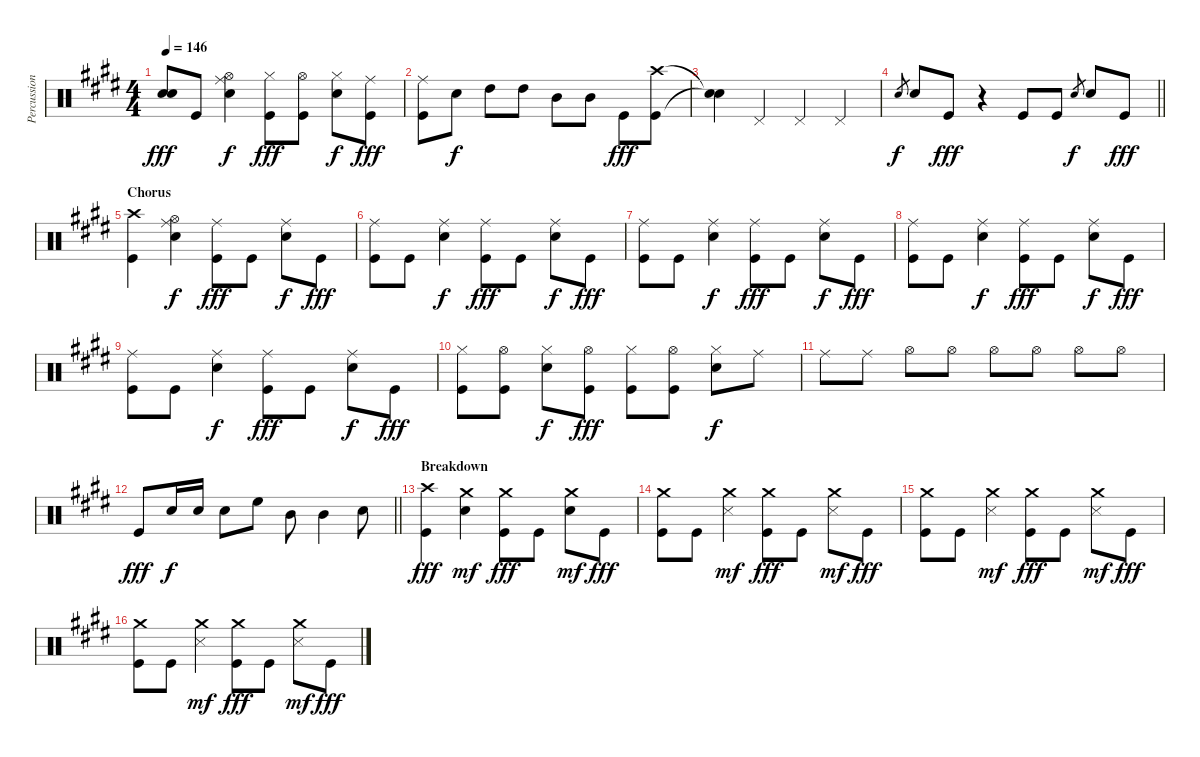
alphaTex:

\track ("Percussion" "Percussion") {instrument percussion}
\staff {score}
\articulation defaults
\ts (4 4)
\tempo 146
\clef neutral
\ks e
("Snare (hit)"{t} "Snare (hit)"{t}).8{dy fff} "Kick (hit)".8 ("Hi-Hat (open)" "Ride (middle)" "Snare (hit) 2").4{dy f} ("Hi-Hat (closed)" "Kick (hit)").8{dy fff} ("Hi-Hat (open)" "Kick (hit)").8 ("Hi-Hat (closed)" "Snare (hit) 2").8{dy f} ("Ride (middle)" "Kick (hit)").8{dy fff} |
("Ride (middle)" "Kick (hit)").8 "Snare (hit) 2".8{dy f} "High Tom (hit)".8 "High Tom (hit)".8 "Mid Tom (hit)".8 "Mid Tom (hit)".8 "Kick (hit)".8{dy fff} ("Crash high (hit)" "Kick (hit)").8 |
("Snare (hit)"{t} "Snare (hit)"{t}).4 "Pedal Hi-Hat (hit)".4 "Pedal Hi-Hat (hit)".4 "Pedal Hi-Hat (hit)".4 |
\barLineRight lightlight "Snare (hit) 2".8{gr dy f} "Snare (hit) 2".8 "Kick (hit)".8{dy fff}
r.4 "Kick (hit)".8 "Kick (hit)".8 "Snare (hit) 2".8{gr dy f} "Snare (hit) 2".8 "Kick (hit)".8{dy fff} |
\section ("" "Chorus")
("Crash high (hit)" "Kick (hit)").4 ("Hi-Hat (open)" "Ride (middle)" "Snare (hit) 2").4{dy f} ("Ride (middle)" "Kick (hit)").8{dy fff} "Kick (hit)".8 ("Ride (middle)" "Snare (hit) 2").8{dy f} "Kick (hit)".8{dy fff} |
("Ride (middle)" "Kick (hit)").8 "Kick (hit)".8 ("Ride (middle)" "Snare (hit) 2").4{dy f} ("Ride (middle)" "Kick (hit)").8{dy fff} "Kick (hit)".8 ("Ride (middle)" "Snare (hit) 2").8{dy f} "Kick (hit)".8{dy fff} |
("Ride (middle)" "Kick (hit)").8 "Kick (hit)".8 ("Ride (middle)" "Snare (hit) 2").4{dy f} ("Ride (middle)" "Kick (hit)").8{dy fff} "Kick (hit)".8 ("Ride (middle)" "Snare (hit) 2").8{dy f} "Kick (hit)".8{dy fff} |
("Ride (middle)" "Kick (hit)").8 "Kick (hit)".8 ("Ride (middle)" "Snare (hit) 2").4{dy f} ("Ride (middle)" "Kick (hit)").8{dy fff} "Kick (hit)".8 ("Ride (middle)" "Snare (hit) 2").8{dy f} "Kick (hit)".8{dy fff} |
("Ride (middle)" "Kick (hit)").8 "Kick (hit)".8 ("Ride (middle)" "Snare (hit) 2").4{dy f} ("Ride (middle)" "Kick (hit)").8{dy fff} "Kick (hit)".8 ("Ride (middle)" "Snare (hit) 2").8{dy f} "Kick (hit)".8{dy fff} |
("Hi-Hat (closed)" "Kick (hit)").8 ("Hi-Hat (open)" "Kick (hit)").8 ("Hi-Hat (closed)" "Snare (hit) 2").8{dy f} ("Hi-Hat (open)" "Kick (hit)").8{dy fff} ("Hi-Hat (closed)" "Kick (hit)").8 ("Hi-Hat (open)" "Kick (hit)").8 ("Hi-Hat (closed)" "Snare (hit) 2").8{dy f} "Ride (middle)".8 |
"Ride (middle)".8 "Ride (middle)".8 "Hi-Hat (open)".8 "Hi-Hat (open)".8 "Hi-Hat (open)".8 "Hi-Hat (open)".8 "Hi-Hat (open)".8 "Hi-Hat (open)".8 |
\barLineRight lightlight "Kick (hit)".8{dy fff} "Snare (hit) 2".16{dy f} "Snare (hit) 2".16 "Snare (hit) 2".8 "High Floor Tom (hit)".8 "Mid Tom (hit)".8 "Mid Tom (hit)".4 "Snare (hit) 2".8
|
\section ("" "Breakdown")
("Crash high (hit)" "Kick (hit)").4{dy fff} ("Crash medium (hit)" "Snare (hit) 2").4{dy mf} ("Crash medium (hit)" "Kick (hit)").8{dy fff} "Kick (hit)".8 ("Crash medium (hit)" "Snare (hit) 2").8{dy mf} "Kick (hit)".8{dy fff} |
("Crash medium (hit)" "Kick (hit)").8 "Kick (hit)".8 ("Crash medium (hit)" "Snare (side stick) 3").4{dy mf} ("Crash medium (hit)" "Kick (hit)").8{dy fff} "Kick (hit)".8 ("Crash medium (hit)" "Snare (side stick) 3").8{dy mf} "Kick (hit)".8{dy fff} |
("Crash medium (hit)" "Kick (hit)").8 "Kick (hit)".8 ("Crash medium (hit)" "Snare (side stick) 3").4{dy mf} ("Crash medium (hit)" "Kick (hit)").8{dy fff} "Kick (hit)".8 ("Crash medium (hit)" "Snare (side stick) 3").8{dy mf} "Kick (hit)".8{dy fff} |
("Crash medium (hit)" "Kick (hit)").8 "Kick (hit)".8 ("Crash medium (hit)" "Snare (side stick) 3").4{dy mf} ("Crash medium (hit)" "Kick (hit)").8{dy fff} "Kick (hit)".8 ("Crash medium (hit)" "Snare (side stick) 3").8{dy mf} "Kick (hit)".8{dy fff}
